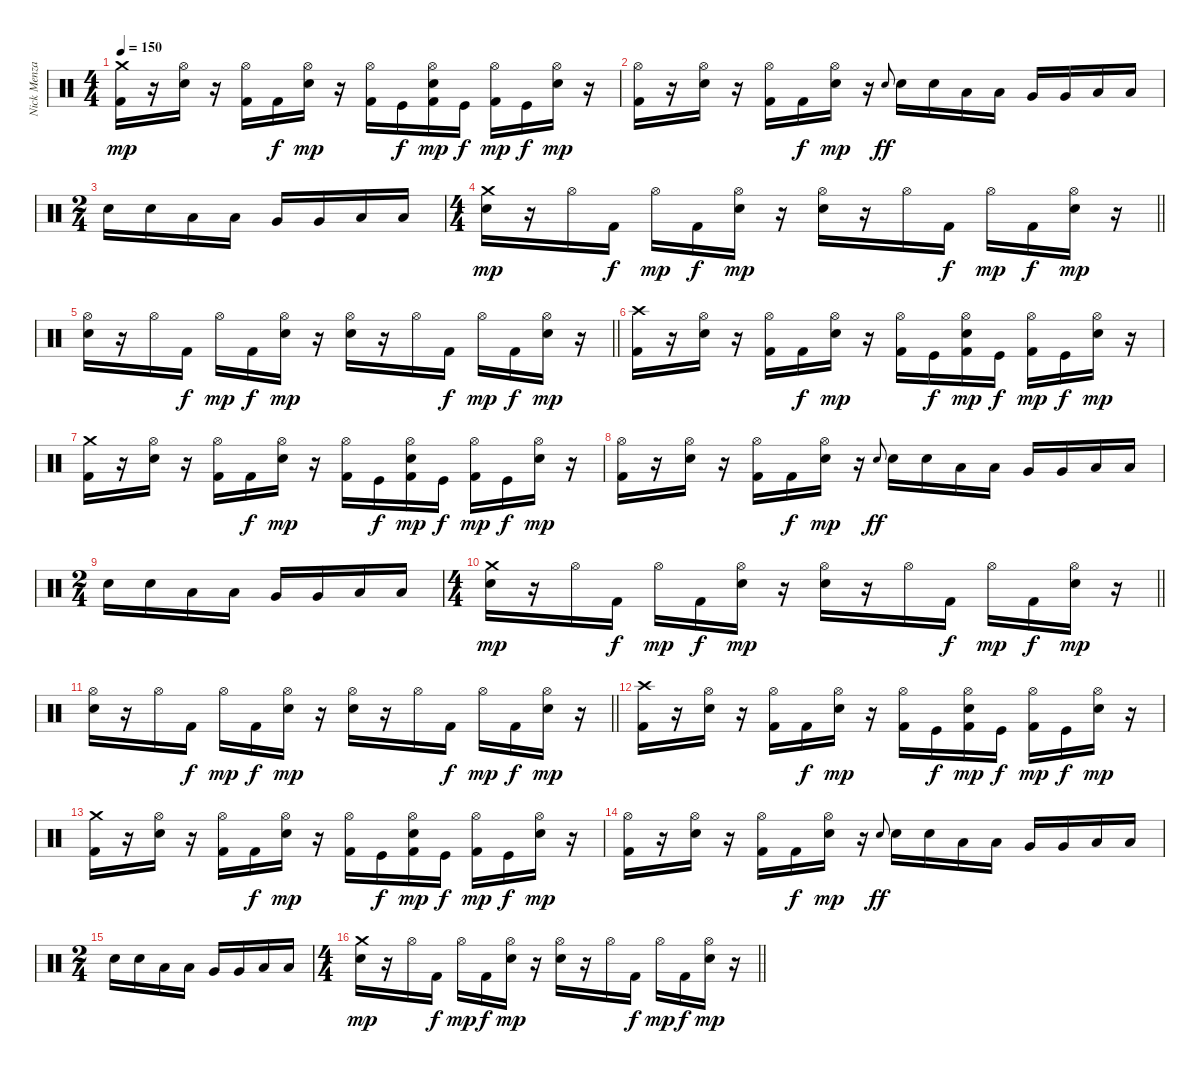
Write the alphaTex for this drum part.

\track ("Nick Menza" "Nick Menza") {solo instrument percussion}
\staff {score}
\articulation defaults
\ts (4 4)
\tempo 150
\clef neutral
\ks c
("Crash medium (hit)" "Kick (hit) 2").16{dy mp} r.16 ("Hi-Hat (open)" "Electric Snare (hit)").16 r.16 ("Hi-Hat (open)" "Kick (hit) 2").16 "Kick (hit) 2".16{dy f} ("Hi-Hat (open)" "Electric Snare (hit)").16{dy mp} r.16 ("Hi-Hat (open)" "Kick (hit) 2").16 "Kick (hit)".16{dy f} ("Hi-Hat (open)" "Electric Snare (hit)" "Kick (hit) 2").16{dy mp} "Kick (hit)".16{dy f} ("Hi-Hat (open)" "Kick (hit) 2").16{dy mp} "Kick (hit)".16{dy f} ("Hi-Hat (open)" "Electric Snare (hit)").16{dy mp} r.16 |
("Hi-Hat (open)" "Kick (hit) 2").16 r.16 ("Hi-Hat (open)" "Electric Snare (hit)").16 r.16 ("Hi-Hat (open)" "Kick (hit) 2").16 "Kick (hit) 2".16{dy f} ("Hi-Hat (open)" "Electric Snare (hit)").16{dy mp} r.16 "Electric Snare (hit)".8{gr onbeat dy ff} "Electric Snare (hit)".16 "Electric Snare (hit)".16 "Low Tom (hit)".16 "Low Tom (hit)".16 "Very Low Tom (hit)".16 "Very Low Tom (hit)".16 "Low Floor Tom (hit)".16 "Low Floor Tom (hit)".16 |
\ts (2 4)
"Electric Snare (hit)".16 "Electric Snare (hit)".16 "Low Tom (hit)".16 "Low Tom (hit)".16 "Very Low Tom (hit)".16 "Very Low Tom (hit)".16 "Low Floor Tom (hit)".16 "Low Floor Tom (hit)".16 |
\ts (4 4)
\barLineRight lightlight
("Crash medium (hit)" "Electric Snare (hit)").16{dy mp} r.16 "Hi-Hat (open)".16 "Kick (hit) 2".16{dy f} "Hi-Hat (open)".16{dy mp} "Kick (hit) 2".16{dy f} ("Hi-Hat (open)" "Electric Snare (hit)").16{dy mp} r.16 ("Hi-Hat (open)" "Electric Snare (hit)").16 r.16 "Hi-Hat (open)".16 "Kick (hit) 2".16{dy f} "Hi-Hat (open)".16{dy mp} "Kick (hit) 2".16{dy f} ("Hi-Hat (open)" "Electric Snare (hit)").16{dy mp} r.16 |
\barLineRight lightlight
("Hi-Hat (open)" "Electric Snare (hit)").16 r.16 "Hi-Hat (open)".16 "Kick (hit) 2".16{dy f} "Hi-Hat (open)".16{dy mp} "Kick (hit) 2".16{dy f} ("Hi-Hat (open)" "Electric Snare (hit)").16{dy mp} r.16 ("Hi-Hat (open)" "Electric Snare (hit)").16 r.16 "Hi-Hat (open)".16 "Kick (hit) 2".16{dy f} "Hi-Hat (open)".16{dy mp} "Kick (hit) 2".16{dy f} ("Hi-Hat (open)" "Electric Snare (hit)").16{dy mp} r.16 |
\section ("" "")
("Crash high (hit)" "Kick (hit) 2").16 r.16 ("Hi-Hat (open)" "Electric Snare (hit)").16 r.16 ("Hi-Hat (open)" "Kick (hit) 2").16 "Kick (hit) 2".16{dy f} ("Hi-Hat (open)" "Electric Snare (hit)").16{dy mp} r.16 ("Hi-Hat (open)" "Kick (hit) 2").16 "Kick (hit)".16{dy f} ("Hi-Hat (open)" "Electric Snare (hit)" "Kick (hit) 2").16{dy mp} "Kick (hit)".16{dy f} ("Hi-Hat (open)" "Kick (hit) 2").16{dy mp} "Kick (hit)".16{dy f} ("Hi-Hat (open)" "Electric Snare (hit)").16{dy mp} r.16 |
("Crash medium (hit)" "Kick (hit) 2").16 r.16 ("Hi-Hat (open)" "Electric Snare (hit)").16 r.16 ("Hi-Hat (open)" "Kick (hit) 2").16 "Kick (hit) 2".16{dy f} ("Hi-Hat (open)" "Electric Snare (hit)").16{dy mp} r.16 ("Hi-Hat (open)" "Kick (hit) 2").16 "Kick (hit)".16{dy f} ("Hi-Hat (open)" "Electric Snare (hit)" "Kick (hit) 2").16{dy mp} "Kick (hit)".16{dy f} ("Hi-Hat (open)" "Kick (hit) 2").16{dy mp} "Kick (hit)".16{dy f} ("Hi-Hat (open)" "Electric Snare (hit)").16{dy mp} r.16 |
("Hi-Hat (open)" "Kick (hit) 2").16 r.16 ("Hi-Hat (open)" "Electric Snare (hit)").16 r.16 ("Hi-Hat (open)" "Kick (hit) 2").16 "Kick (hit) 2".16{dy f} ("Hi-Hat (open)" "Electric Snare (hit)").16{dy mp} r.16 "Electric Snare (hit)".8{gr onbeat dy ff} "Electric Snare (hit)".16 "Electric Snare (hit)".16 "Low Tom (hit)".16 "Low Tom (hit)".16 "Very Low Tom (hit)".16 "Very Low Tom (hit)".16 "Low Floor Tom (hit)".16 "Low Floor Tom (hit)".16 |
\ts (2 4)
"Electric Snare (hit)".16 "Electric Snare (hit)".16 "Low Tom (hit)".16 "Low Tom (hit)".16 "Very Low Tom (hit)".16 "Very Low Tom (hit)".16 "Low Floor Tom (hit)".16 "Low Floor Tom (hit)".16 |
\ts (4 4)
\barLineRight lightlight
("Crash medium (hit)" "Electric Snare (hit)").16{dy mp} r.16 "Hi-Hat (open)".16 "Kick (hit) 2".16{dy f} "Hi-Hat (open)".16{dy mp} "Kick (hit) 2".16{dy f} ("Hi-Hat (open)" "Electric Snare (hit)").16{dy mp} r.16 ("Hi-Hat (open)" "Electric Snare (hit)").16 r.16 "Hi-Hat (open)".16 "Kick (hit) 2".16{dy f} "Hi-Hat (open)".16{dy mp} "Kick (hit) 2".16{dy f} ("Hi-Hat (open)" "Electric Snare (hit)").16{dy mp} r.16 |
\barLineRight lightlight
("Hi-Hat (open)" "Electric Snare (hit)").16 r.16 "Hi-Hat (open)".16 "Kick (hit) 2".16{dy f} "Hi-Hat (open)".16{dy mp} "Kick (hit) 2".16{dy f} ("Hi-Hat (open)" "Electric Snare (hit)").16{dy mp} r.16 ("Hi-Hat (open)" "Electric Snare (hit)").16 r.16 "Hi-Hat (open)".16 "Kick (hit) 2".16{dy f} "Hi-Hat (open)".16{dy mp} "Kick (hit) 2".16{dy f} ("Hi-Hat (open)" "Electric Snare (hit)").16{dy mp} r.16 |
\section ("" "")
("Crash high (hit)" "Kick (hit) 2").16 r.16 ("Hi-Hat (open)" "Electric Snare (hit)").16 r.16 ("Hi-Hat (open)" "Kick (hit) 2").16 "Kick (hit) 2".16{dy f} ("Hi-Hat (open)" "Electric Snare (hit)").16{dy mp} r.16 ("Hi-Hat (open)" "Kick (hit) 2").16 "Kick (hit)".16{dy f} ("Hi-Hat (open)" "Electric Snare (hit)" "Kick (hit) 2").16{dy mp} "Kick (hit)".16{dy f} ("Hi-Hat (open)" "Kick (hit) 2").16{dy mp} "Kick (hit)".16{dy f} ("Hi-Hat (open)" "Electric Snare (hit)").16{dy mp} r.16 |
("Crash medium (hit)" "Kick (hit) 2").16 r.16 ("Hi-Hat (open)" "Electric Snare (hit)").16 r.16 ("Hi-Hat (open)" "Kick (hit) 2").16 "Kick (hit) 2".16{dy f} ("Hi-Hat (open)" "Electric Snare (hit)").16{dy mp} r.16 ("Hi-Hat (open)" "Kick (hit) 2").16 "Kick (hit)".16{dy f} ("Hi-Hat (open)" "Electric Snare (hit)" "Kick (hit) 2").16{dy mp} "Kick (hit)".16{dy f} ("Hi-Hat (open)" "Kick (hit) 2").16{dy mp} "Kick (hit)".16{dy f} ("Hi-Hat (open)" "Electric Snare (hit)").16{dy mp} r.16 |
("Hi-Hat (open)" "Kick (hit) 2").16 r.16 ("Hi-Hat (open)" "Electric Snare (hit)").16 r.16 ("Hi-Hat (open)" "Kick (hit) 2").16 "Kick (hit) 2".16{dy f} ("Hi-Hat (open)" "Electric Snare (hit)").16{dy mp} r.16 "Electric Snare (hit)".8{gr onbeat dy ff} "Electric Snare (hit)".16 "Electric Snare (hit)".16 "Low Tom (hit)".16 "Low Tom (hit)".16 "Very Low Tom (hit)".16 "Very Low Tom (hit)".16 "Low Floor Tom (hit)".16 "Low Floor Tom (hit)".16 |
\ts (2 4)
"Electric Snare (hit)".16 "Electric Snare (hit)".16 "Low Tom (hit)".16 "Low Tom (hit)".16 "Very Low Tom (hit)".16 "Very Low Tom (hit)".16 "Low Floor Tom (hit)".16 "Low Floor Tom (hit)".16 |
\ts (4 4)
\barLineRight lightlight
("Crash medium (hit)" "Electric Snare (hit)").16{dy mp} r.16 "Hi-Hat (open)".16 "Kick (hit) 2".16{dy f} "Hi-Hat (open)".16{dy mp} "Kick (hit) 2".16{dy f} ("Hi-Hat (open)" "Electric Snare (hit)").16{dy mp} r.16 ("Hi-Hat (open)" "Electric Snare (hit)").16 r.16 "Hi-Hat (open)".16 "Kick (hit) 2".16{dy f} "Hi-Hat (open)".16{dy mp} "Kick (hit) 2".16{dy f} ("Hi-Hat (open)" "Electric Snare (hit)").16{dy mp} r.16
